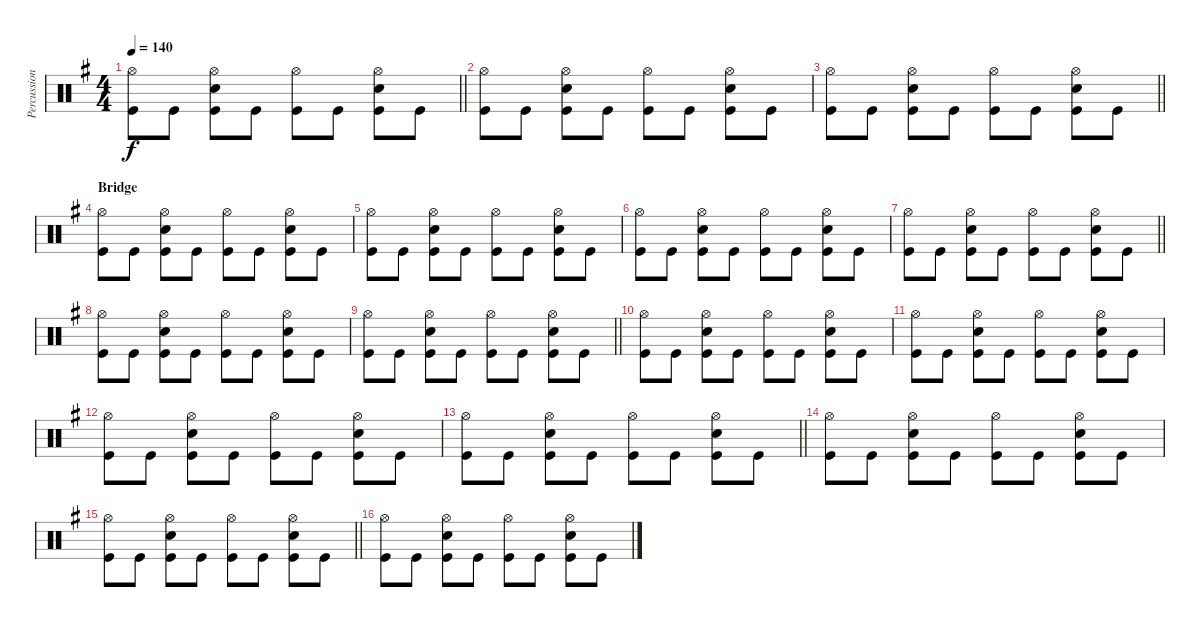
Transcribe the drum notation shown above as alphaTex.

\track ("Percussion" "Percussion") {instrument percussion}
\staff {score}
\articulation defaults
\ts (4 4)
\tempo 140
\clef neutral
\barLineRight lightlight
\ks g
("Hi-Hat (open)" "Kick (hit)").8{dy f} "Kick (hit)".8 ("Hi-Hat (open)" "Snare (hit) 2" "Kick (hit)").8 "Kick (hit)".8 ("Hi-Hat (open)" "Kick (hit)").8 "Kick (hit)".8 ("Hi-Hat (open)" "Snare (hit) 2" "Kick (hit)").8 "Kick (hit)".8 |
("Hi-Hat (open)" "Kick (hit)").8 "Kick (hit)".8 ("Hi-Hat (open)" "Snare (hit) 2" "Kick (hit)").8 "Kick (hit)".8 ("Hi-Hat (open)" "Kick (hit)").8 "Kick (hit)".8 ("Hi-Hat (open)" "Snare (hit) 2" "Kick (hit)").8 "Kick (hit)".8 |
\barLineRight lightlight
("Hi-Hat (open)" "Kick (hit)").8 "Kick (hit)".8 ("Hi-Hat (open)" "Snare (hit) 2" "Kick (hit)").8 "Kick (hit)".8 ("Hi-Hat (open)" "Kick (hit)").8 "Kick (hit)".8 ("Hi-Hat (open)" "Snare (hit) 2" "Kick (hit)").8 "Kick (hit)".8 |
\section ("" "Bridge")
("Hi-Hat (open)" "Kick (hit)").8 "Kick (hit)".8 ("Hi-Hat (open)" "Snare (hit) 2" "Kick (hit)").8 "Kick (hit)".8 ("Hi-Hat (open)" "Kick (hit)").8 "Kick (hit)".8 ("Hi-Hat (open)" "Snare (hit) 2" "Kick (hit)").8 "Kick (hit)".8 |
("Hi-Hat (open)" "Kick (hit)").8 "Kick (hit)".8 ("Hi-Hat (open)" "Snare (hit) 2" "Kick (hit)").8 "Kick (hit)".8 ("Hi-Hat (open)" "Kick (hit)").8 "Kick (hit)".8 ("Hi-Hat (open)" "Snare (hit) 2" "Kick (hit)").8 "Kick (hit)".8 |
("Hi-Hat (open)" "Kick (hit)").8 "Kick (hit)".8 ("Hi-Hat (open)" "Snare (hit) 2" "Kick (hit)").8 "Kick (hit)".8 ("Hi-Hat (open)" "Kick (hit)").8 "Kick (hit)".8 ("Hi-Hat (open)" "Snare (hit) 2" "Kick (hit)").8 "Kick (hit)".8 |
\barLineRight lightlight
("Hi-Hat (open)" "Kick (hit)").8 "Kick (hit)".8 ("Hi-Hat (open)" "Snare (hit) 2" "Kick (hit)").8 "Kick (hit)".8 ("Hi-Hat (open)" "Kick (hit)").8 "Kick (hit)".8 ("Hi-Hat (open)" "Snare (hit) 2" "Kick (hit)").8 "Kick (hit)".8 |
("Hi-Hat (open)" "Kick (hit)").8 "Kick (hit)".8 ("Hi-Hat (open)" "Snare (hit) 2" "Kick (hit)").8 "Kick (hit)".8 ("Hi-Hat (open)" "Kick (hit)").8 "Kick (hit)".8 ("Hi-Hat (open)" "Snare (hit) 2" "Kick (hit)").8 "Kick (hit)".8 |
\barLineRight lightlight
("Hi-Hat (open)" "Kick (hit)").8 "Kick (hit)".8 ("Hi-Hat (open)" "Snare (hit) 2" "Kick (hit)").8 "Kick (hit)".8 ("Hi-Hat (open)" "Kick (hit)").8 "Kick (hit)".8 ("Hi-Hat (open)" "Snare (hit) 2" "Kick (hit)").8 "Kick (hit)".8 |
("Hi-Hat (open)" "Kick (hit)").8 "Kick (hit)".8 ("Hi-Hat (open)" "Snare (hit) 2" "Kick (hit)").8 "Kick (hit)".8 ("Hi-Hat (open)" "Kick (hit)").8 "Kick (hit)".8 ("Hi-Hat (open)" "Snare (hit) 2" "Kick (hit)").8 "Kick (hit)".8 |
("Hi-Hat (open)" "Kick (hit)").8 "Kick (hit)".8 ("Hi-Hat (open)" "Snare (hit) 2" "Kick (hit)").8 "Kick (hit)".8 ("Hi-Hat (open)" "Kick (hit)").8 "Kick (hit)".8 ("Hi-Hat (open)" "Snare (hit) 2" "Kick (hit)").8 "Kick (hit)".8 |
("Hi-Hat (open)" "Kick (hit)").8 "Kick (hit)".8 ("Hi-Hat (open)" "Snare (hit) 2" "Kick (hit)").8 "Kick (hit)".8 ("Hi-Hat (open)" "Kick (hit)").8 "Kick (hit)".8 ("Hi-Hat (open)" "Snare (hit) 2" "Kick (hit)").8 "Kick (hit)".8 |
\barLineRight lightlight
("Hi-Hat (open)" "Kick (hit)").8 "Kick (hit)".8 ("Hi-Hat (open)" "Snare (hit) 2" "Kick (hit)").8 "Kick (hit)".8 ("Hi-Hat (open)" "Kick (hit)").8 "Kick (hit)".8 ("Hi-Hat (open)" "Snare (hit) 2" "Kick (hit)").8 "Kick (hit)".8 |
("Hi-Hat (open)" "Kick (hit)").8 "Kick (hit)".8 ("Hi-Hat (open)" "Snare (hit) 2" "Kick (hit)").8 "Kick (hit)".8 ("Hi-Hat (open)" "Kick (hit)").8 "Kick (hit)".8 ("Hi-Hat (open)" "Snare (hit) 2" "Kick (hit)").8 "Kick (hit)".8 |
\barLineRight lightlight
("Hi-Hat (open)" "Kick (hit)").8 "Kick (hit)".8 ("Hi-Hat (open)" "Snare (hit) 2" "Kick (hit)").8 "Kick (hit)".8 ("Hi-Hat (open)" "Kick (hit)").8 "Kick (hit)".8 ("Hi-Hat (open)" "Snare (hit) 2" "Kick (hit)").8 "Kick (hit)".8 |
("Hi-Hat (open)" "Kick (hit)").8 "Kick (hit)".8 ("Hi-Hat (open)" "Snare (hit) 2" "Kick (hit)").8 "Kick (hit)".8 ("Hi-Hat (open)" "Kick (hit)").8 "Kick (hit)".8 ("Hi-Hat (open)" "Snare (hit) 2" "Kick (hit)").8 "Kick (hit)".8
